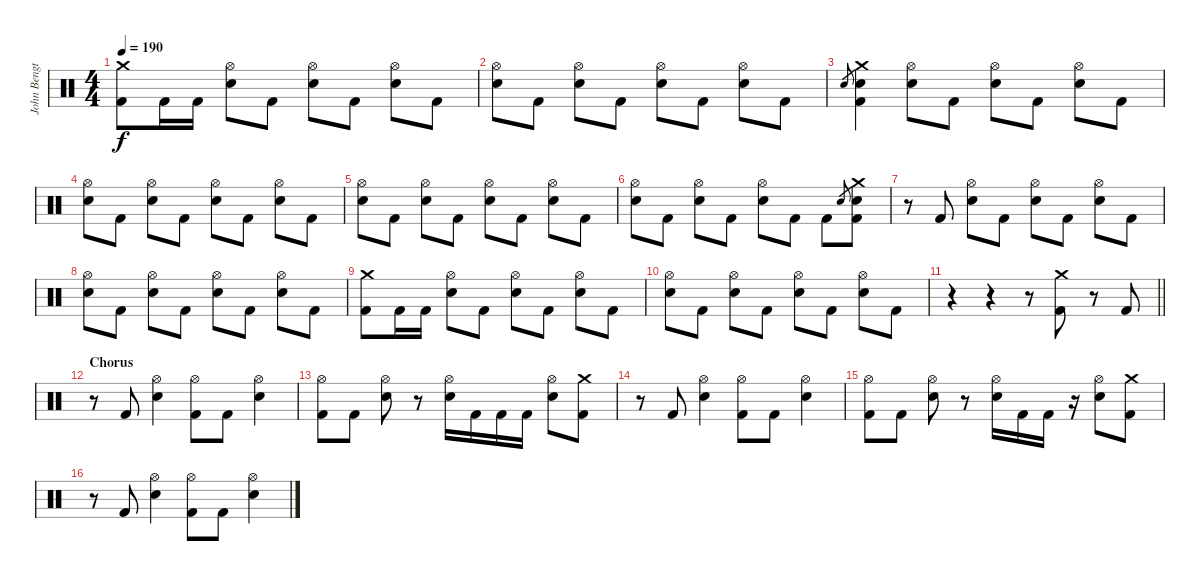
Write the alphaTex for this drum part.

\track ("John Bengtsson" "John Bengt") {instrument percussion}
\staff {score}
\articulation defaults
\ts (4 4)
\tempo 190
\clef neutral
\ks c
("Crash medium (hit)" "Kick (hit) 2").8{dy f} "Kick (hit) 2".16 "Kick (hit) 2".16 ("Hi-Hat (open)" "Electric Snare (hit)").8 "Kick (hit) 2".8 ("Hi-Hat (open)" "Electric Snare (hit)").8 "Kick (hit) 2".8 ("Hi-Hat (open)" "Electric Snare (hit)").8 "Kick (hit) 2".8 |
("Hi-Hat (open)" "Electric Snare (hit)").8 "Kick (hit) 2".8 ("Hi-Hat (open)" "Electric Snare (hit)").8 "Kick (hit) 2".8 ("Hi-Hat (open)" "Electric Snare (hit)").8 "Kick (hit) 2".8 ("Hi-Hat (open)" "Electric Snare (hit)").8 "Kick (hit) 2".8 |
"Electric Snare (hit)".8{gr} ("Crash medium (hit)" "Electric Snare (hit)" "Kick (hit) 2").4 ("Hi-Hat (open)" "Electric Snare (hit)").8 "Kick (hit) 2".8 ("Hi-Hat (open)" "Electric Snare (hit)").8 "Kick (hit) 2".8 ("Hi-Hat (open)" "Electric Snare (hit)").8 "Kick (hit) 2".8 |
("Hi-Hat (open)" "Electric Snare (hit)").8 "Kick (hit) 2".8 ("Hi-Hat (open)" "Electric Snare (hit)").8 "Kick (hit) 2".8 ("Hi-Hat (open)" "Electric Snare (hit)").8 "Kick (hit) 2".8 ("Hi-Hat (open)" "Electric Snare (hit)").8 "Kick (hit) 2".8 |
("Hi-Hat (open)" "Electric Snare (hit)").8 "Kick (hit) 2".8 ("Hi-Hat (open)" "Electric Snare (hit)").8 "Kick (hit) 2".8 ("Hi-Hat (open)" "Electric Snare (hit)").8 "Kick (hit) 2".8 ("Hi-Hat (open)" "Electric Snare (hit)").8 "Kick (hit) 2".8 |
("Hi-Hat (open)" "Electric Snare (hit)").8 "Kick (hit) 2".8 ("Hi-Hat (open)" "Electric Snare (hit)").8 "Kick (hit) 2".8 ("Hi-Hat (open)" "Electric Snare (hit)").8 "Kick (hit) 2".8 "Kick (hit) 2".8 "Electric Snare (hit)".8{gr} ("Crash medium (hit)" "Electric Snare (hit)" "Kick (hit) 2").8 |
r.8 "Kick (hit) 2".8 ("Hi-Hat (open)" "Electric Snare (hit)").8 "Kick (hit) 2".8 ("Hi-Hat (open)" "Electric Snare (hit)").8 "Kick (hit) 2".8 ("Hi-Hat (open)" "Electric Snare (hit)").8 "Kick (hit) 2".8 |
("Hi-Hat (open)" "Electric Snare (hit)").8 "Kick (hit) 2".8 ("Hi-Hat (open)" "Electric Snare (hit)").8 "Kick (hit) 2".8 ("Hi-Hat (open)" "Electric Snare (hit)").8 "Kick (hit) 2".8 ("Hi-Hat (open)" "Electric Snare (hit)").8 "Kick (hit) 2".8 |
("Crash medium (hit)" "Kick (hit) 2").8 "Kick (hit) 2".16 "Kick (hit) 2".16 ("Hi-Hat (open)" "Electric Snare (hit)").8 "Kick (hit) 2".8 ("Hi-Hat (open)" "Electric Snare (hit)").8 "Kick (hit) 2".8 ("Hi-Hat (open)" "Electric Snare (hit)").8 "Kick (hit) 2".8 |
("Hi-Hat (open)" "Electric Snare (hit)").8 "Kick (hit) 2".8 ("Hi-Hat (open)" "Electric Snare (hit)").8 "Kick (hit) 2".8 ("Hi-Hat (open)" "Electric Snare (hit)").8 "Kick (hit) 2".8 ("Hi-Hat (open)" "Electric Snare (hit)").8 "Kick (hit) 2".8 |
\barLineRight lightlight
r.4 r.4 r.8 ("Crash medium (hit)" "Kick (hit) 2").8 r.8 "Kick (hit) 2".8 |
\section ("" "Chorus")
r.8 "Kick (hit) 2".8 ("Hi-Hat (open)" "Electric Snare (hit)").4 ("Hi-Hat (open)" "Kick (hit) 2").8 "Kick (hit) 2".8 ("Hi-Hat (open)" "Electric Snare (hit)").4 |
("Hi-Hat (open)" "Kick (hit) 2").8 "Kick (hit) 2".8 ("Hi-Hat (open)" "Electric Snare (hit)").8 r.8 ("Hi-Hat (open)" "Electric Snare (hit)").16 "Kick (hit) 2".16 "Kick (hit) 2".16 "Kick (hit) 2".16 ("Hi-Hat (open)" "Electric Snare (hit)").8 ("Crash medium (hit)" "Kick (hit) 2").8 |
r.8 "Kick (hit) 2".8 ("Hi-Hat (open)" "Electric Snare (hit)").4 ("Hi-Hat (open)" "Kick (hit) 2").8 "Kick (hit) 2".8 ("Hi-Hat (open)" "Electric Snare (hit)").4 |
("Hi-Hat (open)" "Kick (hit) 2").8 "Kick (hit) 2".8 ("Hi-Hat (open)" "Electric Snare (hit)").8 r.8 ("Hi-Hat (open)" "Electric Snare (hit)").16 "Kick (hit) 2".16 "Kick (hit) 2".16 r.16 ("Hi-Hat (open)" "Electric Snare (hit)").8 ("Crash medium (hit)" "Kick (hit) 2").8 |
r.8 "Kick (hit) 2".8 ("Hi-Hat (open)" "Electric Snare (hit)").4 ("Hi-Hat (open)" "Kick (hit) 2").8 "Kick (hit) 2".8 ("Hi-Hat (open)" "Electric Snare (hit)").4
